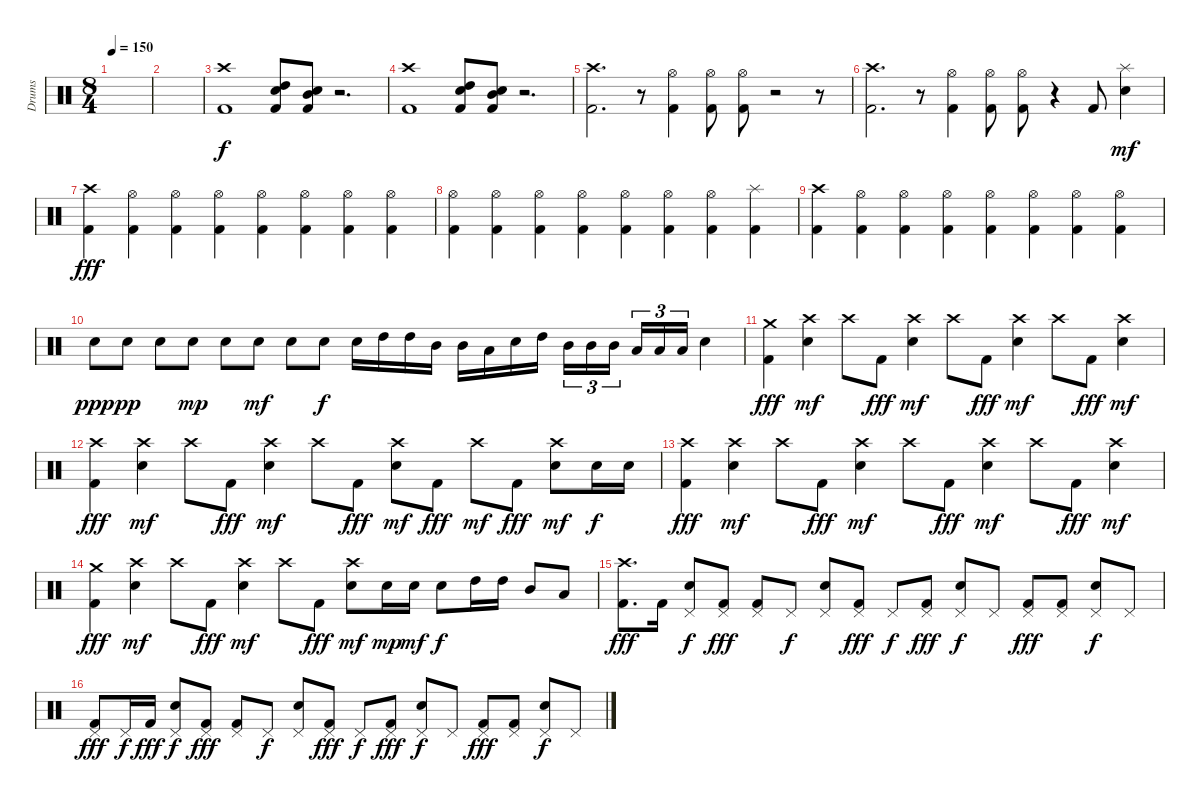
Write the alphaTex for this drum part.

\track ("Drums" "Drums") {instrument percussion}
\staff {score}
\articulation defaults
\ts (8 4)
\tempo 150
\clef neutral
\ks c
|
|
("Crash high (hit)" "Kick (hit) 2").1 ("High Tom (hit)" "Snare (hit) 2" "Kick (hit) 2").8 ("Mid Tom (hit)" "Snare (hit) 2" "Kick (hit) 2").8 r.2{d} |
("Crash high (hit)" "Kick (hit) 2").1 ("High Tom (hit)" "Snare (hit) 2" "Kick (hit) 2").8 ("Mid Tom (hit)" "Snare (hit) 2" "Kick (hit) 2").8 r.2{d} |
("Crash high (hit)" "Kick (hit) 2").2{d} r.8 ("Hi-Hat (open)" "Kick (hit) 2").4 ("Hi-Hat (open)" "Kick (hit) 2").8 ("Hi-Hat (open)" "Kick (hit) 2").8 r.2 r.8 |
("Crash high (hit)" "Kick (hit) 2").2{d} r.8 ("Hi-Hat (open)" "Kick (hit) 2").4 ("Hi-Hat (open)" "Kick (hit) 2").8 ("Hi-Hat (open)" "Kick (hit) 2").8 r.4 "Kick (hit) 2".8 ("Splash (hit)" "Snare (hit) 2").4{dy mf} |
("Crash high (hit)" "Kick (hit) 2").4{dy fff} ("Hi-Hat (open)" "Kick (hit) 2").4 ("Hi-Hat (open)" "Kick (hit) 2").4 ("Hi-Hat (open)" "Kick (hit) 2").4 ("Hi-Hat (open)" "Kick (hit) 2").4 ("Hi-Hat (open)" "Kick (hit) 2").4 ("Hi-Hat (open)" "Kick (hit) 2").4 ("Hi-Hat (open)" "Kick (hit) 2").4 |
("Hi-Hat (open)" "Kick (hit) 2").4 ("Hi-Hat (open)" "Kick (hit) 2").4 ("Hi-Hat (open)" "Kick (hit) 2").4 ("Hi-Hat (open)" "Kick (hit) 2").4 ("Hi-Hat (open)" "Kick (hit) 2").4 ("Hi-Hat (open)" "Kick (hit) 2").4 ("Hi-Hat (open)" "Kick (hit) 2").4 ("Splash (hit)" "Kick (hit) 2").4 |
("Crash high (hit)" "Kick (hit) 2").4 ("Hi-Hat (open)" "Kick (hit) 2").4 ("Hi-Hat (open)" "Kick (hit) 2").4 ("Hi-Hat (open)" "Kick (hit) 2").4 ("Hi-Hat (open)" "Kick (hit) 2").4 ("Hi-Hat (open)" "Kick (hit) 2").4 ("Hi-Hat (open)" "Kick (hit) 2").4 ("Hi-Hat (open)" "Kick (hit) 2").4 |
"Snare (hit) 2".8{dy ppp} "Snare (hit) 2".8{dy pp} "Snare (hit) 2".8 "Snare (hit) 2".8{dy mp} "Snare (hit) 2".8 "Snare (hit) 2".8{dy mf} "Snare (hit) 2".8 "Snare (hit) 2".8{dy f} "Snare (hit) 2".16 "High Tom (hit)".16 "High Tom (hit)".16 "Mid Tom (hit)".16 "Mid Tom (hit)".16 "Low Tom (hit)".16 "Snare (hit) 2".16 "High Tom (hit)".16 "Mid Tom (hit)".16{tu (3 2)} "Mid Tom (hit)".16{tu (3 2)} "Mid Tom (hit)".16{tu (3 2)} "Low Tom (hit)".16{tu (3 2)} "Low Tom (hit)".16{tu (3 2)} "Low Tom (hit)".16{tu (3 2)} "Snare (hit) 2".4 |
("Crash medium (hit)" "Kick (hit) 2").4{dy fff} ("Crash high (hit)" "Snare (hit) 2").4{dy mf} "Crash high (hit)".8 "Kick (hit) 2".8{dy fff} ("Crash high (hit)" "Snare (hit) 2").4{dy mf} "Crash high (hit)".8 "Kick (hit) 2".8{dy fff} ("Crash high (hit)" "Snare (hit) 2").4{dy mf} "Crash high (hit)".8 "Kick (hit) 2".8{dy fff} ("Crash high (hit)" "Snare (hit) 2").4{dy mf} |
("Crash high (hit)" "Kick (hit) 2").4{dy fff} ("Crash high (hit)" "Snare (hit) 2").4{dy mf} "Crash high (hit)".8 "Kick (hit) 2".8{dy fff} ("Crash high (hit)" "Snare (hit) 2").4{dy mf} "Crash high (hit)".8 "Kick (hit) 2".8{dy fff} ("Crash high (hit)" "Snare (hit) 2").8{dy mf} "Kick (hit) 2".8{dy fff} "Crash high (hit)".8{dy mf} "Kick (hit) 2".8{dy fff} ("Crash high (hit)" "Snare (hit) 2").8{dy mf} "Snare (hit) 2".16{dy f} "Snare (hit) 2".16 |
("Crash high (hit)" "Kick (hit) 2").4{dy fff} ("Crash high (hit)" "Snare (hit) 2").4{dy mf} "Crash high (hit)".8 "Kick (hit) 2".8{dy fff} ("Crash high (hit)" "Snare (hit) 2").4{dy mf} "Crash high (hit)".8 "Kick (hit) 2".8{dy fff} ("Crash high (hit)" "Snare (hit) 2").4{dy mf} "Crash high (hit)".8 "Kick (hit) 2".8{dy fff} ("Crash high (hit)" "Snare (hit) 2").4{dy mf} |
("Crash medium (hit)" "Kick (hit) 2").4{dy fff} ("Crash high (hit)" "Snare (hit) 2").4{dy mf} "Crash high (hit)".8 "Kick (hit) 2".8{dy fff} ("Crash high (hit)" "Snare (hit) 2").4{dy mf} "Crash high (hit)".8 "Kick (hit) 2".8{dy fff} ("Crash high (hit)" "Snare (hit) 2").8{dy mf} "Snare (hit) 2".16{dy mp} "Snare (hit) 2".16{dy mf} "Snare (hit) 2".8{dy f} "High Tom (hit)".16 "High Tom (hit)".16 "Mid Tom (hit)".8 "Low Tom (hit)".8 |
("Crash high (hit)" "Kick (hit) 2").8{d dy fff} "Kick (hit) 2".16 ("Pedal Hi-Hat (hit)" "Snare (hit) 2").8{dy f} ("Pedal Hi-Hat (hit)" "Kick (hit) 2").8{dy fff} ("Pedal Hi-Hat (hit)" "Kick (hit) 2").8 "Pedal Hi-Hat (hit)".8{dy f} ("Pedal Hi-Hat (hit)" "Snare (hit) 2").8 ("Pedal Hi-Hat (hit)" "Kick (hit) 2").8{dy fff} "Pedal Hi-Hat (hit)".8{dy f} ("Pedal Hi-Hat (hit)" "Kick (hit) 2").8{dy fff} ("Pedal Hi-Hat (hit)" "Snare (hit) 2").8{dy f} "Pedal Hi-Hat (hit)".8 ("Pedal Hi-Hat (hit)" "Kick (hit) 2").8{dy fff} ("Pedal Hi-Hat (hit)" "Kick (hit) 2").8 ("Pedal Hi-Hat (hit)" "Snare (hit) 2").8{dy f} "Pedal Hi-Hat (hit)".8 |
("Pedal Hi-Hat (hit)" "Kick (hit) 2").8{dy fff} "Pedal Hi-Hat (hit)".16{dy f} "Kick (hit) 2".16{dy fff} ("Pedal Hi-Hat (hit)" "Snare (hit) 2").8{dy f} ("Pedal Hi-Hat (hit)" "Kick (hit) 2").8{dy fff} ("Pedal Hi-Hat (hit)" "Kick (hit) 2").8 "Pedal Hi-Hat (hit)".8{dy f} ("Pedal Hi-Hat (hit)" "Snare (hit) 2").8 ("Pedal Hi-Hat (hit)" "Kick (hit) 2").8{dy fff} "Pedal Hi-Hat (hit)".8{dy f} ("Pedal Hi-Hat (hit)" "Kick (hit) 2").8{dy fff} ("Pedal Hi-Hat (hit)" "Snare (hit) 2").8{dy f} "Pedal Hi-Hat (hit)".8 ("Pedal Hi-Hat (hit)" "Kick (hit) 2").8{dy fff} ("Pedal Hi-Hat (hit)" "Kick (hit) 2").8 ("Pedal Hi-Hat (hit)" "Snare (hit) 2").8{dy f} "Pedal Hi-Hat (hit)".8
